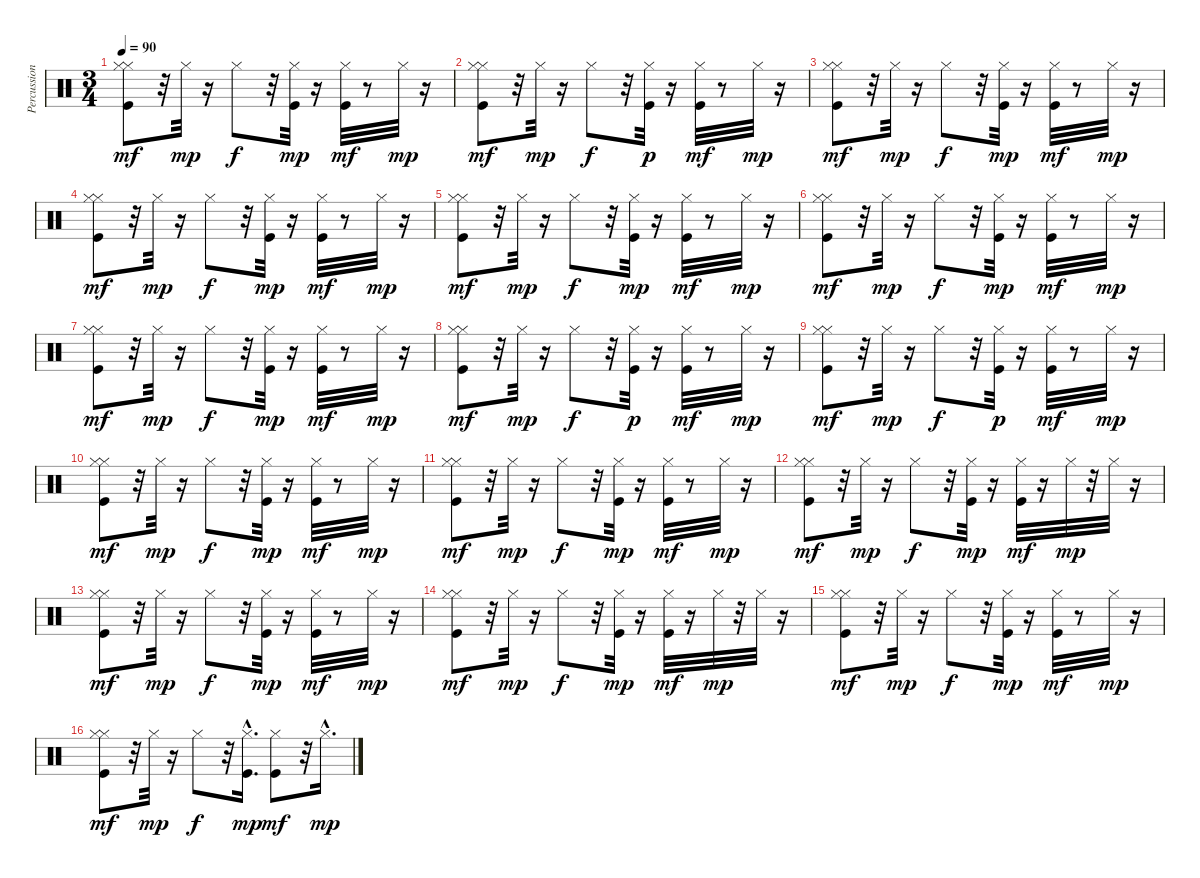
\track ("Percussion" "Percussion") {instrument percussion}
\staff {score}
\articulation defaults
\ts (3 4)
\tempo 90
\clef neutral
\ks c
("Hi-Hat (closed)" "Kick (hit)" "Hi-Hat (closed)").8{dy mf} r.32 "Hi-Hat (closed)".32{dy mp} r.16 "Hi-Hat (closed)".8{dy f} r.32 ("Kick (hit)" "Hi-Hat (closed)").32{dy mp} r.16 ("Kick (hit)" "Hi-Hat (closed)").32{dy mf} r.8 "Hi-Hat (closed)".32{dy mp} r.16 |
("Hi-Hat (closed)" "Kick (hit)" "Hi-Hat (closed)").8{dy mf} r.32 "Hi-Hat (closed)".32{dy mp} r.16 "Hi-Hat (closed)".8{dy f} r.32 ("Kick (hit)" "Hi-Hat (closed)").32{dy p} r.16 ("Kick (hit)" "Hi-Hat (closed)").32{dy mf} r.8 "Hi-Hat (closed)".32{dy mp} r.16 |
("Hi-Hat (closed)" "Kick (hit)" "Hi-Hat (closed)").8{dy mf} r.32 "Hi-Hat (closed)".32{dy mp} r.16 "Hi-Hat (closed)".8{dy f} r.32 ("Kick (hit)" "Hi-Hat (closed)").32{dy mp} r.16 ("Kick (hit)" "Hi-Hat (closed)").32{dy mf} r.8 "Hi-Hat (closed)".32{dy mp} r.16 |
("Hi-Hat (closed)" "Kick (hit)" "Hi-Hat (closed)").8{dy mf} r.32 "Hi-Hat (closed)".32{dy mp} r.16 "Hi-Hat (closed)".8{dy f} r.32 ("Kick (hit)" "Hi-Hat (closed)").32{dy mp} r.16 ("Kick (hit)" "Hi-Hat (closed)").32{dy mf} r.8 "Hi-Hat (closed)".32{dy mp} r.16 |
("Hi-Hat (closed)" "Kick (hit)" "Hi-Hat (closed)").8{dy mf} r.32 "Hi-Hat (closed)".32{dy mp} r.16 "Hi-Hat (closed)".8{dy f} r.32 ("Kick (hit)" "Hi-Hat (closed)").32{dy mp} r.16 ("Kick (hit)" "Hi-Hat (closed)").32{dy mf} r.8 "Hi-Hat (closed)".32{dy mp} r.16 |
("Hi-Hat (closed)" "Kick (hit)" "Hi-Hat (closed)").8{dy mf} r.32 "Hi-Hat (closed)".32{dy mp} r.16 "Hi-Hat (closed)".8{dy f} r.32 ("Kick (hit)" "Hi-Hat (closed)").32{dy mp} r.16 ("Kick (hit)" "Hi-Hat (closed)").32{dy mf} r.8 "Hi-Hat (closed)".32{dy mp} r.16 |
("Hi-Hat (closed)" "Kick (hit)" "Hi-Hat (closed)").8{dy mf} r.32 "Hi-Hat (closed)".32{dy mp} r.16 "Hi-Hat (closed)".8{dy f} r.32 ("Kick (hit)" "Hi-Hat (closed)").32{dy mp} r.16 ("Kick (hit)" "Hi-Hat (closed)").32{dy mf} r.8 "Hi-Hat (closed)".32{dy mp} r.16 |
("Hi-Hat (closed)" "Kick (hit)" "Hi-Hat (closed)").8{dy mf} r.32 "Hi-Hat (closed)".32{dy mp} r.16 "Hi-Hat (closed)".8{dy f} r.32 ("Kick (hit)" "Hi-Hat (closed)").32{dy p} r.16 ("Kick (hit)" "Hi-Hat (closed)").32{dy mf} r.8 "Hi-Hat (closed)".32{dy mp} r.16 |
("Hi-Hat (closed)" "Kick (hit)" "Hi-Hat (closed)").8{dy mf} r.32 "Hi-Hat (closed)".32{dy mp} r.16 "Hi-Hat (closed)".8{dy f} r.32 ("Kick (hit)" "Hi-Hat (closed)").32{dy p} r.16 ("Kick (hit)" "Hi-Hat (closed)").32{dy mf} r.8 "Hi-Hat (closed)".32{dy mp} r.16 |
("Hi-Hat (closed)" "Kick (hit)" "Hi-Hat (closed)").8{dy mf} r.32 "Hi-Hat (closed)".32{dy mp} r.16 "Hi-Hat (closed)".8{dy f} r.32 ("Kick (hit)" "Hi-Hat (closed)").32{dy mp} r.16 ("Kick (hit)" "Hi-Hat (closed)").32{dy mf} r.8 "Hi-Hat (closed)".32{dy mp} r.16 |
("Hi-Hat (closed)" "Kick (hit)" "Hi-Hat (closed)").8{dy mf} r.32 "Hi-Hat (closed)".32{dy mp} r.16 "Hi-Hat (closed)".8{dy f} r.32 ("Kick (hit)" "Hi-Hat (closed)").32{dy mp} r.16 ("Kick (hit)" "Hi-Hat (closed)").32{dy mf} r.8 "Hi-Hat (closed)".32{dy mp} r.16 |
("Hi-Hat (closed)" "Kick (hit)" "Hi-Hat (closed)").8{dy mf} r.32 "Hi-Hat (closed)".32{dy mp} r.16 "Hi-Hat (closed)".8{dy f} r.32 ("Kick (hit)" "Hi-Hat (closed)").32{dy mp} r.16 ("Kick (hit)" "Hi-Hat (closed)").32{dy mf} r.16 "Hi-Hat (closed)".32{dy mp} r.32 "Hi-Hat (closed)".32 r.16 |
("Hi-Hat (closed)" "Kick (hit)" "Hi-Hat (closed)").8{dy mf} r.32 "Hi-Hat (closed)".32{dy mp} r.16 "Hi-Hat (closed)".8{dy f} r.32 ("Kick (hit)" "Hi-Hat (closed)").32{dy mp} r.16 ("Kick (hit)" "Hi-Hat (closed)").32{dy mf} r.8 "Hi-Hat (closed)".32{dy mp} r.16 |
("Hi-Hat (closed)" "Kick (hit)" "Hi-Hat (closed)").8{dy mf} r.32 "Hi-Hat (closed)".32{dy mp} r.16 "Hi-Hat (closed)".8{dy f} r.32 ("Kick (hit)" "Hi-Hat (closed)").32{dy mp} r.16 ("Kick (hit)" "Hi-Hat (closed)").32{dy mf} r.16 "Hi-Hat (closed)".32{dy mp} r.32 "Hi-Hat (closed)".32 r.16 |
("Hi-Hat (closed)" "Kick (hit)" "Hi-Hat (closed)").8{dy mf} r.32 "Hi-Hat (closed)".32{dy mp} r.16 "Hi-Hat (closed)".8{dy f} r.32 ("Kick (hit)" "Hi-Hat (closed)").32{dy mp} r.16 ("Kick (hit)" "Hi-Hat (closed)").32{dy mf} r.8 "Hi-Hat (closed)".32{dy mp} r.16 |
("Hi-Hat (closed)" "Kick (hit)" "Hi-Hat (closed)").8{dy mf} r.32 "Hi-Hat (closed)".32{dy mp} r.16 "Hi-Hat (closed)".8{dy f} r.32 ("Kick (hit)" "Hi-Hat (closed)"{hac}).16{d dy mp} ("Kick (hit)" "Hi-Hat (closed)").8{dy mf} r.32 "Hi-Hat (closed)"{hac}.16{d dy mp}
